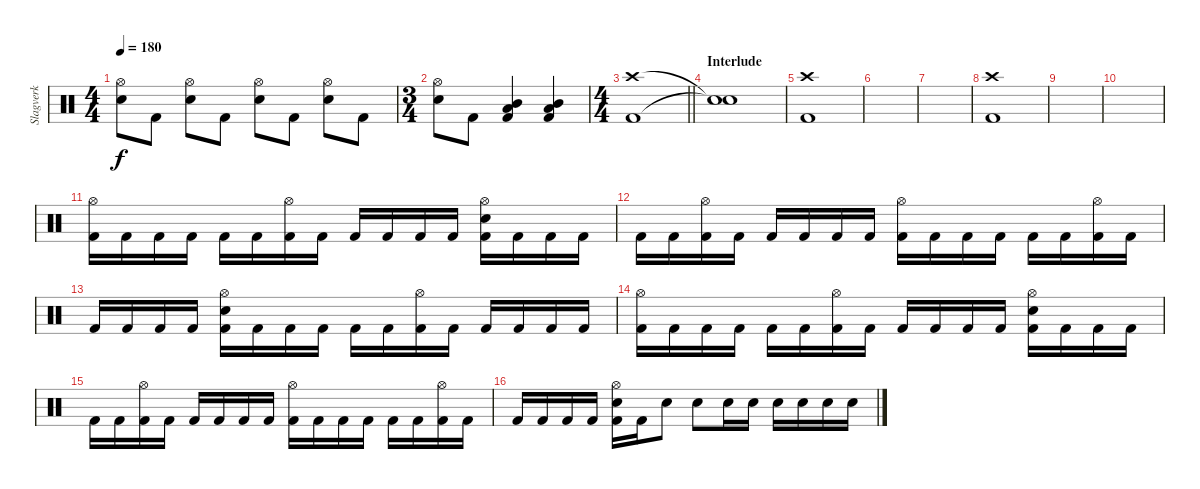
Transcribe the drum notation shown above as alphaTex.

\track ("Slagverk" "Slagverk") {instrument percussion}
\staff {score}
\articulation defaults
\ts (4 4)
\tempo 180
\clef neutral
\ks c
("Hi-Hat (open)" "Electric Snare (hit)").8{dy f} "Kick (hit) 2".8 ("Hi-Hat (open)" "Electric Snare (hit)").8 "Kick (hit) 2".8 ("Hi-Hat (open)" "Electric Snare (hit)").8 "Kick (hit) 2".8 ("Hi-Hat (open)" "Electric Snare (hit)").8 "Kick (hit) 2".8 |
\ts (3 4)
("Hi-Hat (open)" "Electric Snare (hit)").8 "Kick (hit) 2".8 ("Mid Tom (hit)" "Low Tom (hit)" "Kick (hit) 2").4 ("Mid Tom (hit)" "Low Tom (hit)" "Kick (hit) 2").4 |
\ts (4 4)
\barLineRight lightlight
("Crash high (hit)" "Kick (hit) 2").1 |
\section ("" "Interlude")
("Snare (hit)"{t} "Snare (hit)"{t}).1 |
("Crash high (hit)" "Kick (hit) 2").1 |
|
|
("Crash high (hit)" "Kick (hit) 2").1 |
|
|
("Hi-Hat (open)" "Kick (hit) 2").16 "Kick (hit) 2".16 "Kick (hit) 2".16 "Kick (hit) 2".16 "Kick (hit) 2".16 "Kick (hit) 2".16 ("Hi-Hat (open)" "Kick (hit) 2").16 "Kick (hit) 2".16 "Kick (hit) 2".16 "Kick (hit) 2".16 "Kick (hit) 2".16 "Kick (hit) 2".16 ("Hi-Hat (open)" "Electric Snare (hit)" "Kick (hit) 2").16 "Kick (hit) 2".16 "Kick (hit) 2".16 "Kick (hit) 2".16 |
"Kick (hit) 2".16 "Kick (hit) 2".16 ("Hi-Hat (open)" "Kick (hit) 2").16 "Kick (hit) 2".16 "Kick (hit) 2".16 "Kick (hit) 2".16 "Kick (hit) 2".16 "Kick (hit) 2".16 ("Hi-Hat (open)" "Kick (hit) 2").16 "Kick (hit) 2".16 "Kick (hit) 2".16 "Kick (hit) 2".16 "Kick (hit) 2".16 "Kick (hit) 2".16 ("Hi-Hat (open)" "Kick (hit) 2").16 "Kick (hit) 2".16 |
"Kick (hit) 2".16 "Kick (hit) 2".16 "Kick (hit) 2".16 "Kick (hit) 2".16 ("Hi-Hat (open)" "Electric Snare (hit)" "Kick (hit) 2").16 "Kick (hit) 2".16 "Kick (hit) 2".16 "Kick (hit) 2".16 "Kick (hit) 2".16 "Kick (hit) 2".16 ("Hi-Hat (open)" "Kick (hit) 2").16 "Kick (hit) 2".16 "Kick (hit) 2".16 "Kick (hit) 2".16 "Kick (hit) 2".16 "Kick (hit) 2".16 |
("Hi-Hat (open)" "Kick (hit) 2").16 "Kick (hit) 2".16 "Kick (hit) 2".16 "Kick (hit) 2".16 "Kick (hit) 2".16 "Kick (hit) 2".16 ("Hi-Hat (open)" "Kick (hit) 2").16 "Kick (hit) 2".16 "Kick (hit) 2".16 "Kick (hit) 2".16 "Kick (hit) 2".16 "Kick (hit) 2".16 ("Hi-Hat (open)" "Electric Snare (hit)" "Kick (hit) 2").16 "Kick (hit) 2".16 "Kick (hit) 2".16 "Kick (hit) 2".16 |
"Kick (hit) 2".16 "Kick (hit) 2".16 ("Hi-Hat (open)" "Kick (hit) 2").16 "Kick (hit) 2".16 "Kick (hit) 2".16 "Kick (hit) 2".16 "Kick (hit) 2".16 "Kick (hit) 2".16 ("Hi-Hat (open)" "Kick (hit) 2").16 "Kick (hit) 2".16 "Kick (hit) 2".16 "Kick (hit) 2".16 "Kick (hit) 2".16 "Kick (hit) 2".16 ("Hi-Hat (open)" "Kick (hit) 2").16 "Kick (hit) 2".16 |
"Kick (hit) 2".16 "Kick (hit) 2".16 "Kick (hit) 2".16 "Kick (hit) 2".16 ("Hi-Hat (open)" "Electric Snare (hit)" "Kick (hit) 2").16 "Kick (hit) 2".16 "Electric Snare (hit)".8 "Electric Snare (hit)".8 "Electric Snare (hit)".16 "Electric Snare (hit)".16 "Electric Snare (hit)".16 "Electric Snare (hit)".16 "Electric Snare (hit)".16 "Electric Snare (hit)".16
